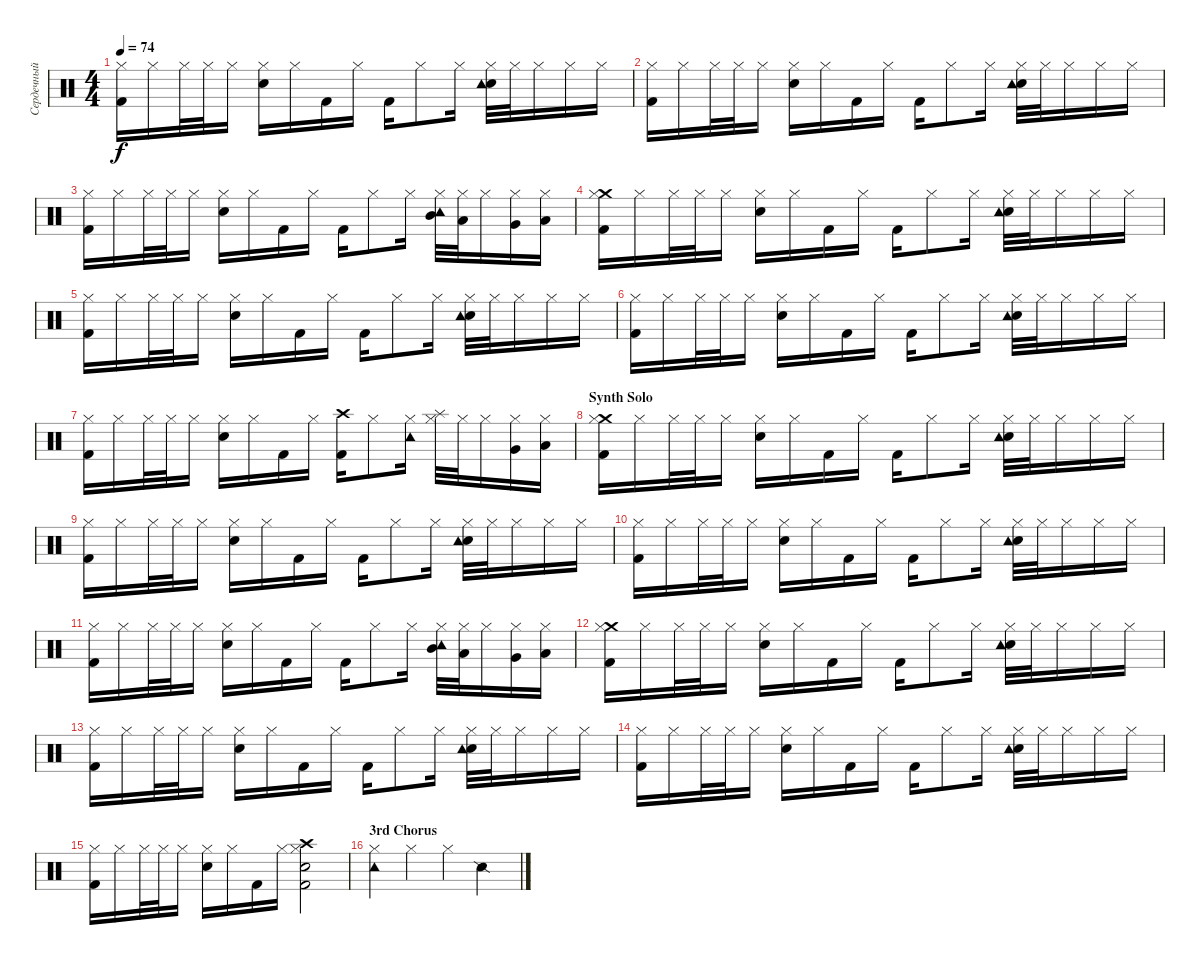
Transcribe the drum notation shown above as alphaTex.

\track ("Сердечный (Ударные)" "Сердечный ") {instrument percussion}
\staff {score}
\articulation defaults
\ts (4 4)
\tempo 74
\clef neutral
\ks c
("Kick (hit) 2" "Hi-Hat (closed)").16{dy f} "Hi-Hat (closed)".16 "Hi-Hat (closed)".32 "Hi-Hat (closed)".32 "Hi-Hat (closed)".16 ("Electric Snare (hit)" "Hi-Hat (closed)").16 "Hi-Hat (closed)".16 "Kick (hit) 2".16 "Hi-Hat (closed)".16 "Kick (hit) 2".16 "Hi-Hat (closed)".8 "Hi-Hat (closed)".16 ("Electric Snare (hit)" "Tambourine (hit)" "Hi-Hat (closed)").32 "Hi-Hat (closed)".32 "Hi-Hat (closed)".16 "Hi-Hat (closed)".16 "Hi-Hat (closed)".16 |
("Kick (hit) 2" "Hi-Hat (closed)").16 "Hi-Hat (closed)".16 "Hi-Hat (closed)".32 "Hi-Hat (closed)".32 "Hi-Hat (closed)".16 ("Electric Snare (hit)" "Hi-Hat (closed)").16 "Hi-Hat (closed)".16 "Kick (hit) 2".16 "Hi-Hat (closed)".16 "Kick (hit) 2".16 "Hi-Hat (closed)".8 "Hi-Hat (closed)".16 ("Electric Snare (hit)" "Tambourine (hit)" "Hi-Hat (closed)").32 "Hi-Hat (closed)".32 "Hi-Hat (closed)".16 "Hi-Hat (closed)".16 "Hi-Hat (closed)".16 |
("Kick (hit) 2" "Hi-Hat (closed)").16 "Hi-Hat (closed)".16 "Hi-Hat (closed)".32 "Hi-Hat (closed)".32 "Hi-Hat (closed)".16 ("Electric Snare (hit)" "Hi-Hat (closed)").16 "Hi-Hat (closed)".16 "Kick (hit) 2".16 "Hi-Hat (closed)".16 "Kick (hit) 2".16 "Hi-Hat (closed)".8 "Hi-Hat (closed)".16 ("Mid Tom (hit)" "Tambourine (hit)" "Hi-Hat (closed)").32 ("Low Tom (hit)" "Hi-Hat (closed)").32 "Hi-Hat (closed)".16 ("Very Low Tom (hit)" "Hi-Hat (closed)").16 ("Low Floor Tom (hit)" "Hi-Hat (closed)").16 |
("Kick (hit) 2" "Crash medium (hit)" "Hi-Hat (closed)").16 "Hi-Hat (closed)".16 "Hi-Hat (closed)".32 "Hi-Hat (closed)".32 "Hi-Hat (closed)".16 ("Electric Snare (hit)" "Hi-Hat (closed)").16 "Hi-Hat (closed)".16 "Kick (hit) 2".16 "Hi-Hat (closed)".16 "Kick (hit) 2".16 "Hi-Hat (closed)".8 "Hi-Hat (closed)".16 ("Electric Snare (hit)" "Tambourine (hit)" "Hi-Hat (closed)").32 "Hi-Hat (closed)".32 "Hi-Hat (closed)".16 "Hi-Hat (closed)".16 "Hi-Hat (closed)".16 |
("Kick (hit) 2" "Hi-Hat (closed)").16 "Hi-Hat (closed)".16 "Hi-Hat (closed)".32 "Hi-Hat (closed)".32 "Hi-Hat (closed)".16 ("Electric Snare (hit)" "Hi-Hat (closed)").16 "Hi-Hat (closed)".16 "Kick (hit) 2".16 "Hi-Hat (closed)".16 "Kick (hit) 2".16 "Hi-Hat (closed)".8 "Hi-Hat (closed)".16 ("Electric Snare (hit)" "Tambourine (hit)" "Hi-Hat (closed)").32 "Hi-Hat (closed)".32 "Hi-Hat (closed)".16 "Hi-Hat (closed)".16 "Hi-Hat (closed)".16 |
("Kick (hit) 2" "Hi-Hat (closed)").16 "Hi-Hat (closed)".16 "Hi-Hat (closed)".32 "Hi-Hat (closed)".32 "Hi-Hat (closed)".16 ("Electric Snare (hit)" "Hi-Hat (closed)").16 "Hi-Hat (closed)".16 "Kick (hit) 2".16 "Hi-Hat (closed)".16 "Kick (hit) 2".16 "Hi-Hat (closed)".8 "Hi-Hat (closed)".16 ("Electric Snare (hit)" "Tambourine (hit)" "Hi-Hat (closed)").32 "Hi-Hat (closed)".32 "Hi-Hat (closed)".16 "Hi-Hat (closed)".16 "Hi-Hat (closed)".16 |
("Kick (hit) 2" "Hi-Hat (closed)").16 "Hi-Hat (closed)".16 "Hi-Hat (closed)".32 "Hi-Hat (closed)".32 "Hi-Hat (closed)".16 ("Electric Snare (hit)" "Hi-Hat (closed)").16 "Hi-Hat (closed)".16 "Kick (hit) 2".16 "Hi-Hat (closed)".16 ("Kick (hit) 2" "Crash high (hit)").16 "Hi-Hat (closed)".8 ("Tambourine (hit)" "Hi-Hat (closed)").16 ("Splash (hit)" "Hi-Hat (closed)").32 "Hi-Hat (closed)".32 "Hi-Hat (closed)".16 ("Very Low Tom (hit)" "Hi-Hat (closed)").16 ("Low Floor Tom (hit)" "Hi-Hat (closed)").16 |
\section ("" "Synth Solo")
("Kick (hit) 2" "Crash medium (hit)" "Hi-Hat (closed)").16 "Hi-Hat (closed)".16 "Hi-Hat (closed)".32 "Hi-Hat (closed)".32 "Hi-Hat (closed)".16 ("Electric Snare (hit)" "Hi-Hat (closed)").16 "Hi-Hat (closed)".16 "Kick (hit) 2".16 "Hi-Hat (closed)".16 "Kick (hit) 2".16 "Hi-Hat (closed)".8 "Hi-Hat (closed)".16 ("Electric Snare (hit)" "Tambourine (hit)" "Hi-Hat (closed)").32 "Hi-Hat (closed)".32 "Hi-Hat (closed)".16 "Hi-Hat (closed)".16 "Hi-Hat (closed)".16 |
("Kick (hit) 2" "Hi-Hat (closed)").16 "Hi-Hat (closed)".16 "Hi-Hat (closed)".32 "Hi-Hat (closed)".32 "Hi-Hat (closed)".16 ("Electric Snare (hit)" "Hi-Hat (closed)").16 "Hi-Hat (closed)".16 "Kick (hit) 2".16 "Hi-Hat (closed)".16 "Kick (hit) 2".16 "Hi-Hat (closed)".8 "Hi-Hat (closed)".16 ("Electric Snare (hit)" "Tambourine (hit)" "Hi-Hat (closed)").32 "Hi-Hat (closed)".32 "Hi-Hat (closed)".16 "Hi-Hat (closed)".16 "Hi-Hat (closed)".16 |
("Kick (hit) 2" "Hi-Hat (closed)").16 "Hi-Hat (closed)".16 "Hi-Hat (closed)".32 "Hi-Hat (closed)".32 "Hi-Hat (closed)".16 ("Electric Snare (hit)" "Hi-Hat (closed)").16 "Hi-Hat (closed)".16 "Kick (hit) 2".16 "Hi-Hat (closed)".16 "Kick (hit) 2".16 "Hi-Hat (closed)".8 "Hi-Hat (closed)".16 ("Electric Snare (hit)" "Tambourine (hit)" "Hi-Hat (closed)").32 "Hi-Hat (closed)".32 "Hi-Hat (closed)".16 "Hi-Hat (closed)".16 "Hi-Hat (closed)".16 |
("Kick (hit) 2" "Hi-Hat (closed)").16 "Hi-Hat (closed)".16 "Hi-Hat (closed)".32 "Hi-Hat (closed)".32 "Hi-Hat (closed)".16 ("Electric Snare (hit)" "Hi-Hat (closed)").16 "Hi-Hat (closed)".16 "Kick (hit) 2".16 "Hi-Hat (closed)".16 "Kick (hit) 2".16 "Hi-Hat (closed)".8 "Hi-Hat (closed)".16 ("Mid Tom (hit)" "Tambourine (hit)" "Hi-Hat (closed)").32 ("Low Tom (hit)" "Hi-Hat (closed)").32 "Hi-Hat (closed)".16 ("Very Low Tom (hit)" "Hi-Hat (closed)").16 ("Low Floor Tom (hit)" "Hi-Hat (closed)").16 |
("Kick (hit) 2" "Crash medium (hit)" "Hi-Hat (closed)").16 "Hi-Hat (closed)".16 "Hi-Hat (closed)".32 "Hi-Hat (closed)".32 "Hi-Hat (closed)".16 ("Electric Snare (hit)" "Hi-Hat (closed)").16 "Hi-Hat (closed)".16 "Kick (hit) 2".16 "Hi-Hat (closed)".16 "Kick (hit) 2".16 "Hi-Hat (closed)".8 "Hi-Hat (closed)".16 ("Electric Snare (hit)" "Tambourine (hit)" "Hi-Hat (closed)").32 "Hi-Hat (closed)".32 "Hi-Hat (closed)".16 "Hi-Hat (closed)".16 "Hi-Hat (closed)".16 |
("Kick (hit) 2" "Hi-Hat (closed)").16 "Hi-Hat (closed)".16 "Hi-Hat (closed)".32 "Hi-Hat (closed)".32 "Hi-Hat (closed)".16 ("Electric Snare (hit)" "Hi-Hat (closed)").16 "Hi-Hat (closed)".16 "Kick (hit) 2".16 "Hi-Hat (closed)".16 "Kick (hit) 2".16 "Hi-Hat (closed)".8 "Hi-Hat (closed)".16 ("Electric Snare (hit)" "Tambourine (hit)" "Hi-Hat (closed)").32 "Hi-Hat (closed)".32 "Hi-Hat (closed)".16 "Hi-Hat (closed)".16 "Hi-Hat (closed)".16 |
("Kick (hit) 2" "Hi-Hat (closed)").16 "Hi-Hat (closed)".16 "Hi-Hat (closed)".32 "Hi-Hat (closed)".32 "Hi-Hat (closed)".16 ("Electric Snare (hit)" "Hi-Hat (closed)").16 "Hi-Hat (closed)".16 "Kick (hit) 2".16 "Hi-Hat (closed)".16 "Kick (hit) 2".16 "Hi-Hat (closed)".8 "Hi-Hat (closed)".16 ("Electric Snare (hit)" "Tambourine (hit)" "Hi-Hat (closed)").32 "Hi-Hat (closed)".32 "Hi-Hat (closed)".16 "Hi-Hat (closed)".16 "Hi-Hat (closed)".16 |
("Kick (hit) 2" "Hi-Hat (closed)").16 "Hi-Hat (closed)".16 "Hi-Hat (closed)".32 "Hi-Hat (closed)".32 "Hi-Hat (closed)".16 ("Electric Snare (hit)" "Hi-Hat (closed)").16 "Hi-Hat (closed)".16 "Kick (hit) 2".16 "Hi-Hat (closed)".16 ("Kick (hit) 2" "Electric Snare (hit)" "Crash high (hit)" "Hi-Hat (closed)").2 |
\section ("" "3rd Chorus")
("Tambourine (hit)" "Hi-Hat (closed)").4 "Hi-Hat (closed)".4 "Hi-Hat (closed)".4 "Snare (side stick) 2".4
